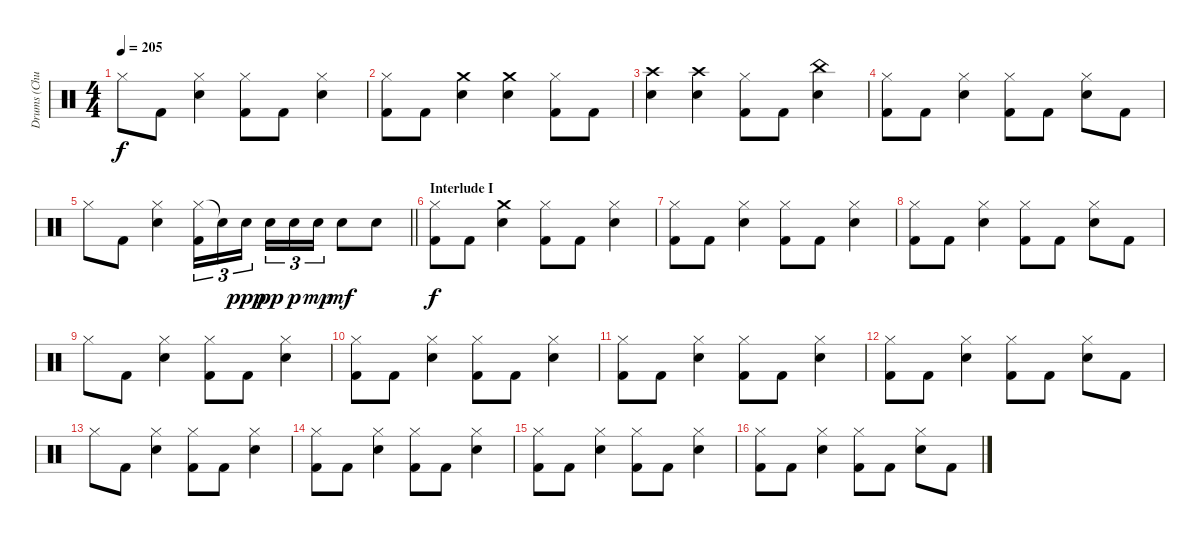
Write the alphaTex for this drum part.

\track ("Drums (Chuck Behler)" "Drums (Chu") {instrument percussion}
\staff {score}
\articulation defaults
\ts (4 4)
\tempo 205
\clef neutral
\ks c "Hi-Hat (closed)".8{dy f} "Kick (hit) 2".8
("Electric Snare (hit)" "Hi-Hat (closed)").4 ("Kick (hit) 2" "Hi-Hat (closed)").8 "Kick (hit) 2".8 ("Electric Snare (hit)" "Hi-Hat (closed)").4 |
("Hi-Hat (closed)" "Kick (hit) 2").8 "Kick (hit) 2".8 ("Crash medium (hit)" "Electric Snare (hit)").4 ("Crash medium (hit)" "Electric Snare (hit)").4 ("Kick (hit) 2" "Hi-Hat (closed)").8 "Kick (hit) 2".8 |
("Crash high (hit)" "Electric Snare (hit)").4 ("Crash high (hit)" "Electric Snare (hit)").4 ("Kick (hit) 2" "Hi-Hat (closed)").8 "Kick (hit) 2".8 ("China (hit)" "Electric Snare (hit)").4 |
("Kick (hit) 2" "Hi-Hat (closed)").8 "Kick (hit) 2".8 ("Electric Snare (hit)" "Hi-Hat (closed)").4 ("Kick (hit) 2" "Hi-Hat (closed)").8 "Kick (hit) 2".8 ("Electric Snare (hit)" "Hi-Hat (closed)").8 "Kick (hit) 2".8 |
\barLineRight lightlight "Hi-Hat (closed)".8 "Kick (hit) 2".8
("Electric Snare (hit)" "Hi-Hat (closed)").4 ("Hi-Hat (closed)" "Kick (hit) 2").16{tu (3 2)} "Snare (hit)"{t}.16{tu (3 2)} "Electric Snare (hit)".16{tu (3 2) dy ppp beam splitsecondary} "Electric Snare (hit)".16{tu (3 2) dy pp} "Electric Snare (hit)".16{tu (3 2) dy p} "Electric Snare (hit)".16{tu (3 2) dy mp} "Electric Snare (hit)".8{dy mf} "Electric Snare (hit)".8 |
\section ("" "Interlude I")
("Kick (hit) 2" "Hi-Hat (closed)").8{dy f} "Kick (hit) 2".8 ("Electric Snare (hit)" "Crash medium (hit)").4 ("Kick (hit) 2" "Hi-Hat (closed)").8 "Kick (hit) 2".8 ("Electric Snare (hit)" "Hi-Hat (closed)").4 |
("Kick (hit) 2" "Hi-Hat (closed)").8 "Kick (hit) 2".8 ("Electric Snare (hit)" "Hi-Hat (closed)").4 ("Kick (hit) 2" "Hi-Hat (closed)").8 "Kick (hit) 2".8 ("Electric Snare (hit)" "Hi-Hat (closed)").4 |
("Kick (hit) 2" "Hi-Hat (closed)").8 "Kick (hit) 2".8 ("Electric Snare (hit)" "Hi-Hat (closed)").4 ("Kick (hit) 2" "Hi-Hat (closed)").8 "Kick (hit) 2".8 ("Electric Snare (hit)" "Hi-Hat (closed)").8 "Kick (hit) 2".8 |
"Hi-Hat (closed)".8 "Kick (hit) 2".8 ("Electric Snare (hit)" "Hi-Hat (closed)").4 ("Kick (hit) 2" "Hi-Hat (closed)").8 "Kick (hit) 2".8 ("Electric Snare (hit)" "Hi-Hat (closed)").4 |
("Kick (hit) 2" "Hi-Hat (closed)").8 "Kick (hit) 2".8 ("Electric Snare (hit)" "Hi-Hat (closed)").4 ("Kick (hit) 2" "Hi-Hat (closed)").8 "Kick (hit) 2".8 ("Electric Snare (hit)" "Hi-Hat (closed)").4 |
("Kick (hit) 2" "Hi-Hat (closed)").8 "Kick (hit) 2".8 ("Electric Snare (hit)" "Hi-Hat (closed)").4 ("Kick (hit) 2" "Hi-Hat (closed)").8 "Kick (hit) 2".8 ("Electric Snare (hit)" "Hi-Hat (closed)").4 |
("Kick (hit) 2" "Hi-Hat (closed)").8 "Kick (hit) 2".8 ("Electric Snare (hit)" "Hi-Hat (closed)").4 ("Kick (hit) 2" "Hi-Hat (closed)").8 "Kick (hit) 2".8 ("Electric Snare (hit)" "Hi-Hat (closed)").8 "Kick (hit) 2".8 |
"Hi-Hat (closed)".8 "Kick (hit) 2".8 ("Electric Snare (hit)" "Hi-Hat (closed)").4 ("Kick (hit) 2" "Hi-Hat (closed)").8 "Kick (hit) 2".8 ("Electric Snare (hit)" "Hi-Hat (closed)").4 |
("Kick (hit) 2" "Hi-Hat (closed)").8 "Kick (hit) 2".8 ("Electric Snare (hit)" "Hi-Hat (closed)").4 ("Kick (hit) 2" "Hi-Hat (closed)").8 "Kick (hit) 2".8 ("Electric Snare (hit)" "Hi-Hat (closed)").4 |
("Kick (hit) 2" "Hi-Hat (closed)").8 "Kick (hit) 2".8 ("Electric Snare (hit)" "Hi-Hat (closed)").4 ("Kick (hit) 2" "Hi-Hat (closed)").8 "Kick (hit) 2".8 ("Electric Snare (hit)" "Hi-Hat (closed)").4 |
("Kick (hit) 2" "Hi-Hat (closed)").8 "Kick (hit) 2".8 ("Electric Snare (hit)" "Hi-Hat (closed)").4 ("Kick (hit) 2" "Hi-Hat (closed)").8 "Kick (hit) 2".8 ("Electric Snare (hit)" "Hi-Hat (closed)").8 "Kick (hit) 2".8
